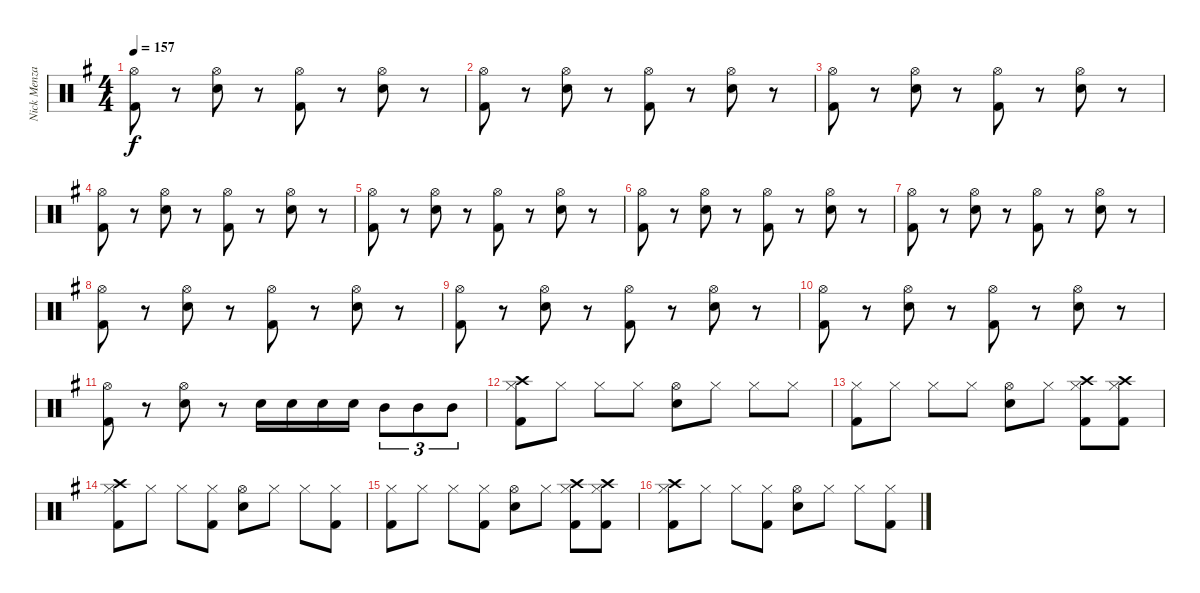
\track ("Nick Menza" "Nick Menza") {instrument percussion}
\staff {score}
\articulation defaults
\ts (4 4)
\tempo 157
\clef neutral
\ks g
("Hi-Hat (open)" "Kick (hit) 2").8{dy f} r.8 ("Hi-Hat (open)" "Snare (hit) 2").8 r.8 ("Hi-Hat (open)" "Kick (hit) 2").8 r.8 ("Hi-Hat (open)" "Snare (hit) 2").8 r.8 |
("Hi-Hat (open)" "Kick (hit) 2").8 r.8 ("Hi-Hat (open)" "Snare (hit) 2").8 r.8 ("Hi-Hat (open)" "Kick (hit) 2").8 r.8 ("Hi-Hat (open)" "Snare (hit) 2").8 r.8 |
("Hi-Hat (open)" "Kick (hit) 2").8 r.8 ("Hi-Hat (open)" "Snare (hit) 2").8 r.8 ("Hi-Hat (open)" "Kick (hit) 2").8 r.8 ("Hi-Hat (open)" "Snare (hit) 2").8 r.8 |
("Hi-Hat (open)" "Kick (hit) 2").8 r.8 ("Hi-Hat (open)" "Snare (hit) 2").8 r.8 ("Hi-Hat (open)" "Kick (hit) 2").8 r.8 ("Hi-Hat (open)" "Snare (hit) 2").8 r.8 |
("Hi-Hat (open)" "Kick (hit) 2").8 r.8 ("Hi-Hat (open)" "Snare (hit) 2").8 r.8 ("Hi-Hat (open)" "Kick (hit) 2").8 r.8 ("Hi-Hat (open)" "Snare (hit) 2").8 r.8 |
("Hi-Hat (open)" "Kick (hit) 2").8 r.8 ("Hi-Hat (open)" "Snare (hit) 2").8 r.8 ("Hi-Hat (open)" "Kick (hit) 2").8 r.8 ("Hi-Hat (open)" "Snare (hit) 2").8 r.8 |
("Hi-Hat (open)" "Kick (hit) 2").8 r.8 ("Hi-Hat (open)" "Snare (hit) 2").8 r.8 ("Hi-Hat (open)" "Kick (hit) 2").8 r.8 ("Hi-Hat (open)" "Snare (hit) 2").8 r.8 |
("Hi-Hat (open)" "Kick (hit) 2").8 r.8 ("Hi-Hat (open)" "Snare (hit) 2").8 r.8 ("Hi-Hat (open)" "Kick (hit) 2").8 r.8 ("Hi-Hat (open)" "Snare (hit) 2").8 r.8 |
("Hi-Hat (open)" "Kick (hit) 2").8 r.8 ("Hi-Hat (open)" "Snare (hit) 2").8 r.8 ("Hi-Hat (open)" "Kick (hit) 2").8 r.8 ("Hi-Hat (open)" "Snare (hit) 2").8 r.8 |
("Hi-Hat (open)" "Kick (hit) 2").8 r.8 ("Hi-Hat (open)" "Snare (hit) 2").8 r.8 ("Hi-Hat (open)" "Kick (hit) 2").8 r.8 ("Hi-Hat (open)" "Snare (hit) 2").8 r.8 |
("Hi-Hat (open)" "Kick (hit) 2").8 r.8 ("Hi-Hat (open)" "Snare (hit) 2").8 r.8 "Snare (hit) 2".16 "Snare (hit) 2".16 "Snare (hit) 2".16 "Snare (hit) 2".16 "Mid Tom (hit)".8{tu (3 2)} "Mid Tom (hit)".8{tu (3 2)} "Mid Tom (hit)".8{tu (3 2)} |
("Hi-Hat (closed)" "Crash high (hit)" "Kick (hit) 2").8 "Hi-Hat (closed)".8 "Hi-Hat (closed)".8 "Hi-Hat (closed)".8 ("Hi-Hat (open)" "Snare (hit) 2").8 "Hi-Hat (closed)".8 "Hi-Hat (closed)".8 "Hi-Hat (closed)".8 |
("Hi-Hat (closed)" "Kick (hit) 2").8 "Hi-Hat (closed)".8 "Hi-Hat (closed)".8 "Hi-Hat (closed)".8 ("Hi-Hat (open)" "Snare (hit) 2").8 "Hi-Hat (closed)".8 ("Hi-Hat (closed)" "Kick (hit) 2" "Crash high (hit)").8 ("Hi-Hat (closed)" "Kick (hit) 2" "Crash high (hit)").8 |
("Hi-Hat (closed)" "Crash high (hit)" "Kick (hit) 2").8 "Hi-Hat (closed)".8 "Hi-Hat (closed)".8 ("Hi-Hat (closed)" "Kick (hit) 2").8 ("Hi-Hat (open)" "Snare (hit) 2").8 "Hi-Hat (closed)".8 "Hi-Hat (closed)".8 ("Hi-Hat (closed)" "Kick (hit) 2").8 |
("Hi-Hat (closed)" "Kick (hit) 2").8 "Hi-Hat (closed)".8 "Hi-Hat (closed)".8 ("Hi-Hat (closed)" "Kick (hit) 2").8 ("Hi-Hat (open)" "Snare (hit) 2").8 "Hi-Hat (closed)".8 ("Hi-Hat (closed)" "Kick (hit) 2" "Crash high (hit)").8 ("Hi-Hat (closed)" "Kick (hit) 2" "Crash high (hit)").8 |
("Hi-Hat (closed)" "Crash high (hit)" "Kick (hit) 2").8 "Hi-Hat (closed)".8 "Hi-Hat (closed)".8 ("Hi-Hat (closed)" "Kick (hit) 2").8 ("Hi-Hat (open)" "Snare (hit) 2").8 "Hi-Hat (closed)".8 "Hi-Hat (closed)".8 ("Hi-Hat (closed)" "Kick (hit) 2").8
